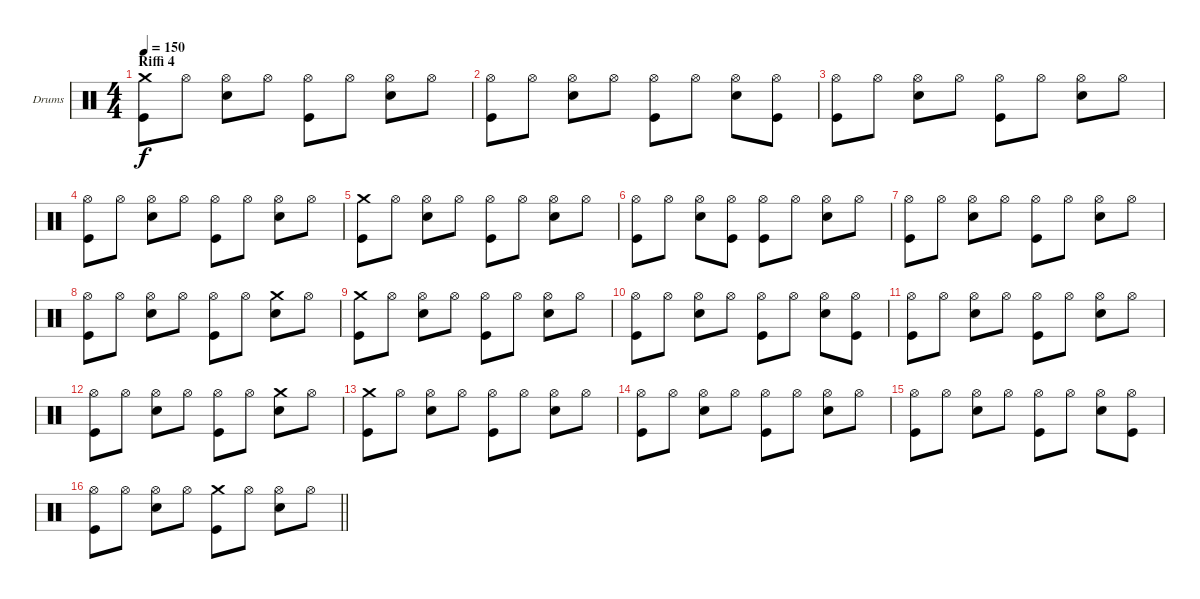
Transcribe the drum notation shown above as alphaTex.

\bracketExtendMode groupsimilarinstruments
\firstSystemTrackNameOrientation horizontal
\otherSystemsTrackNameOrientation horizontal
\track ("Drumkit" "Drums") {instrument percussion}
\staff {score}
\articulation defaults
\ts (4 4)
\section ("" "Riffi 4")
\tempo 150
\clef neutral
\ks c
("Crash medium (hit)" "Kick (hit)").8{dy f} "Hi-Hat (open)".8 ("Hi-Hat (open)" "Snare (hit) 2").8 "Hi-Hat (open)".8 ("Hi-Hat (open)" "Kick (hit)").8 "Hi-Hat (open)".8 ("Hi-Hat (open)" "Snare (hit) 2").8 "Hi-Hat (open)".8 |
("Hi-Hat (open)" "Kick (hit)").8 "Hi-Hat (open)".8 ("Hi-Hat (open)" "Snare (hit) 2").8 "Hi-Hat (open)".8 ("Hi-Hat (open)" "Kick (hit)").8 "Hi-Hat (open)".8 ("Hi-Hat (open)" "Snare (hit) 2").8 ("Hi-Hat (open)" "Kick (hit)").8 |
("Hi-Hat (open)" "Kick (hit)").8 "Hi-Hat (open)".8 ("Hi-Hat (open)" "Snare (hit) 2").8 "Hi-Hat (open)".8 ("Hi-Hat (open)" "Kick (hit)").8 "Hi-Hat (open)".8 ("Hi-Hat (open)" "Snare (hit) 2").8 "Hi-Hat (open)".8 |
("Hi-Hat (open)" "Kick (hit)").8 "Hi-Hat (open)".8 ("Hi-Hat (open)" "Snare (hit) 2").8 "Hi-Hat (open)".8 ("Hi-Hat (open)" "Kick (hit)").8 "Hi-Hat (open)".8 ("Hi-Hat (open)" "Snare (hit) 2").8 "Hi-Hat (open)".8 |
("Crash medium (hit)" "Kick (hit)").8 "Hi-Hat (open)".8 ("Hi-Hat (open)" "Snare (hit) 2").8 "Hi-Hat (open)".8 ("Hi-Hat (open)" "Kick (hit)").8 "Hi-Hat (open)".8 ("Hi-Hat (open)" "Snare (hit) 2").8 "Hi-Hat (open)".8 |
("Hi-Hat (open)" "Kick (hit)").8 "Hi-Hat (open)".8 ("Hi-Hat (open)" "Snare (hit) 2").8 ("Hi-Hat (open)" "Kick (hit)").8 ("Hi-Hat (open)" "Kick (hit)").8 "Hi-Hat (open)".8 ("Hi-Hat (open)" "Snare (hit) 2").8 "Hi-Hat (open)".8 |
("Hi-Hat (open)" "Kick (hit)").8 "Hi-Hat (open)".8 ("Hi-Hat (open)" "Snare (hit) 2").8 "Hi-Hat (open)".8 ("Hi-Hat (open)" "Kick (hit)").8 "Hi-Hat (open)".8 ("Hi-Hat (open)" "Snare (hit) 2").8 "Hi-Hat (open)".8 |
("Hi-Hat (open)" "Kick (hit)").8 "Hi-Hat (open)".8 ("Hi-Hat (open)" "Snare (hit) 2").8 "Hi-Hat (open)".8 ("Hi-Hat (open)" "Kick (hit)").8 "Hi-Hat (open)".8 ("Crash medium (hit)" "Snare (hit) 2").8 "Hi-Hat (open)".8 |
("Crash medium (hit)" "Kick (hit)").8 "Hi-Hat (open)".8 ("Hi-Hat (open)" "Snare (hit) 2").8 "Hi-Hat (open)".8 ("Hi-Hat (open)" "Kick (hit)").8 "Hi-Hat (open)".8 ("Hi-Hat (open)" "Snare (hit) 2").8 "Hi-Hat (open)".8 |
("Hi-Hat (open)" "Kick (hit)").8 "Hi-Hat (open)".8 ("Hi-Hat (open)" "Snare (hit) 2").8 "Hi-Hat (open)".8 ("Hi-Hat (open)" "Kick (hit)").8 "Hi-Hat (open)".8 ("Hi-Hat (open)" "Snare (hit) 2").8 ("Hi-Hat (open)" "Kick (hit)").8 |
("Hi-Hat (open)" "Kick (hit)").8 "Hi-Hat (open)".8 ("Hi-Hat (open)" "Snare (hit) 2").8 "Hi-Hat (open)".8 ("Hi-Hat (open)" "Kick (hit)").8 "Hi-Hat (open)".8 ("Hi-Hat (open)" "Snare (hit) 2").8 "Hi-Hat (open)".8 |
("Hi-Hat (open)" "Kick (hit)").8 "Hi-Hat (open)".8 ("Hi-Hat (open)" "Snare (hit) 2").8 "Hi-Hat (open)".8 ("Hi-Hat (open)" "Kick (hit)").8 "Hi-Hat (open)".8 ("Crash medium (hit)" "Snare (hit) 2").8 "Hi-Hat (open)".8 |
("Crash medium (hit)" "Kick (hit)").8 "Hi-Hat (open)".8 ("Hi-Hat (open)" "Snare (hit) 2").8 "Hi-Hat (open)".8 ("Hi-Hat (open)" "Kick (hit)").8 "Hi-Hat (open)".8 ("Hi-Hat (open)" "Snare (hit) 2").8 "Hi-Hat (open)".8 |
("Hi-Hat (open)" "Kick (hit)").8 "Hi-Hat (open)".8 ("Hi-Hat (open)" "Snare (hit) 2").8 "Hi-Hat (open)".8 ("Hi-Hat (open)" "Kick (hit)").8 "Hi-Hat (open)".8 ("Hi-Hat (open)" "Snare (hit) 2").8 "Hi-Hat (open)".8 |
("Hi-Hat (open)" "Kick (hit)").8 "Hi-Hat (open)".8 ("Hi-Hat (open)" "Snare (hit) 2").8 "Hi-Hat (open)".8 ("Hi-Hat (open)" "Kick (hit)").8 "Hi-Hat (open)".8 ("Hi-Hat (open)" "Snare (hit) 2").8 ("Hi-Hat (open)" "Kick (hit)").8 |
\barLineRight lightlight
("Hi-Hat (open)" "Kick (hit)").8 "Hi-Hat (open)".8 ("Hi-Hat (open)" "Snare (hit) 2").8 "Hi-Hat (open)".8 ("Crash medium (hit)" "Kick (hit)").8 "Hi-Hat (open)".8 ("Hi-Hat (open)" "Snare (hit) 2").8 "Hi-Hat (open)".8
